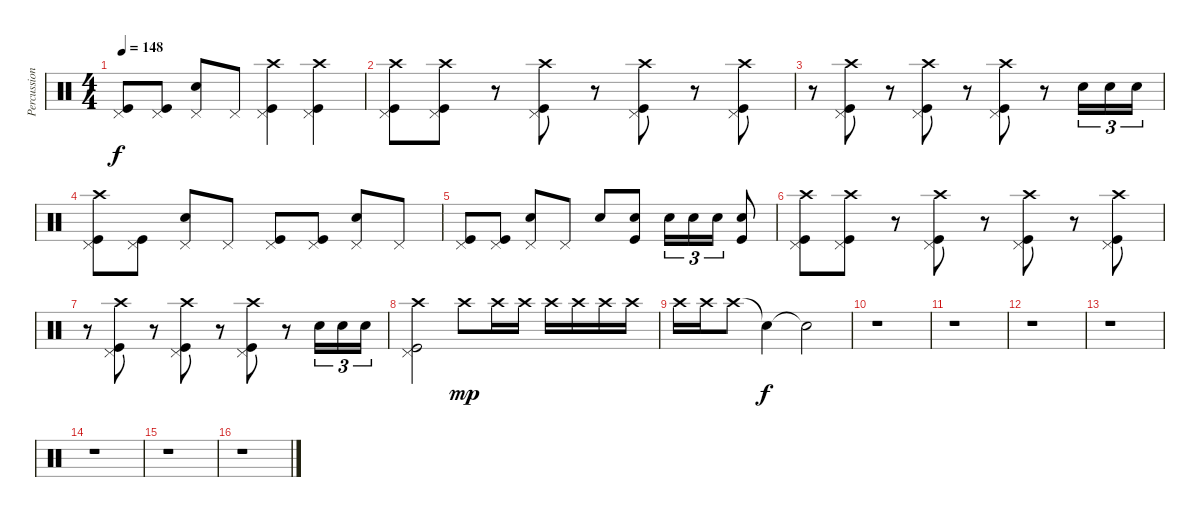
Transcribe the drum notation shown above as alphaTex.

\track ("Percussion" "Percussion") {instrument percussion}
\staff {score}
\articulation defaults
\ts (4 4)
\tempo 148
\clef neutral
\ks c
("Pedal Hi-Hat (hit)" "Kick (hit)").8{dy f} ("Pedal Hi-Hat (hit)" "Kick (hit)").8 ("Pedal Hi-Hat (hit)" "Snare (hit) 2").8 "Pedal Hi-Hat (hit)".8 ("Pedal Hi-Hat (hit)" "Crash high (hit)" "Kick (hit)").4 ("Pedal Hi-Hat (hit)" "Crash high (hit)" "Kick (hit)").4 |
("Pedal Hi-Hat (hit)" "Kick (hit)" "Crash high (hit)").8 ("Pedal Hi-Hat (hit)" "Kick (hit)" "Crash high (hit)").8 r.8 ("Pedal Hi-Hat (hit)" "Kick (hit)" "Crash high (hit)").8 r.8 ("Pedal Hi-Hat (hit)" "Kick (hit)" "Crash high (hit)").8 r.8 ("Pedal Hi-Hat (hit)" "Kick (hit)" "Crash high (hit)").8 |
r.8 ("Pedal Hi-Hat (hit)" "Kick (hit)" "Crash high (hit)").8 r.8 ("Pedal Hi-Hat (hit)" "Kick (hit)" "Crash high (hit)").8 r.8 ("Pedal Hi-Hat (hit)" "Kick (hit)" "Crash high (hit)").8 r.8 "Snare (hit) 2".16{tu (3 2)} "Snare (hit) 2".16{tu (3 2)} "Snare (hit) 2".16{tu (3 2)} |
("Pedal Hi-Hat (hit)" "Kick (hit)" "Crash high (hit)").8 ("Pedal Hi-Hat (hit)" "Kick (hit)").8 ("Pedal Hi-Hat (hit)" "Snare (hit) 2").8 "Pedal Hi-Hat (hit)".8 ("Pedal Hi-Hat (hit)" "Kick (hit)").8 ("Pedal Hi-Hat (hit)" "Kick (hit)").8 ("Pedal Hi-Hat (hit)" "Snare (hit) 2").8 "Pedal Hi-Hat (hit)".8 |
("Pedal Hi-Hat (hit)" "Kick (hit)").8 ("Pedal Hi-Hat (hit)" "Kick (hit)").8 ("Pedal Hi-Hat (hit)" "Snare (hit) 2").8 "Pedal Hi-Hat (hit)".8 "Snare (hit) 2".8 ("Snare (hit) 2" "Kick (hit)").8 "Snare (hit) 2".16{tu (3 2)} "Snare (hit) 2".16{tu (3 2)} "Snare (hit) 2".16{tu (3 2)} ("Snare (hit) 2" "Kick (hit)").8 |
("Pedal Hi-Hat (hit)" "Kick (hit)" "Crash high (hit)").8 ("Pedal Hi-Hat (hit)" "Kick (hit)" "Crash high (hit)").8 r.8 ("Pedal Hi-Hat (hit)" "Kick (hit)" "Crash high (hit)").8 r.8 ("Pedal Hi-Hat (hit)" "Kick (hit)" "Crash high (hit)").8 r.8 ("Pedal Hi-Hat (hit)" "Kick (hit)" "Crash high (hit)").8 |
r.8 ("Pedal Hi-Hat (hit)" "Kick (hit)" "Crash high (hit)").8 r.8 ("Pedal Hi-Hat (hit)" "Kick (hit)" "Crash high (hit)").8 r.8 ("Pedal Hi-Hat (hit)" "Kick (hit)" "Crash high (hit)").8 r.8 "Snare (hit) 2".16{tu (3 2)} "Snare (hit) 2".16{tu (3 2)} "Snare (hit) 2".16{tu (3 2)} |
("Pedal Hi-Hat (hit)" "Crash high (hit)" "Kick (hit)").2 "Crash high (hit)".8{dy mp} "Crash high (hit)".16 "Crash high (hit)".16 "Crash high (hit)".16 "Crash high (hit)".16 "Crash high (hit)".16 "Crash high (hit)".16 |
"Crash high (hit)".16 "Crash high (hit)".16 "Crash high (hit)".8 "Snare (hit)"{t}.4{dy f} "Snare (hit)"{t}.2 |
r.1 |
r.1 |
r.1 |
r.1 |
r.1 |
r.1 |
r.1
